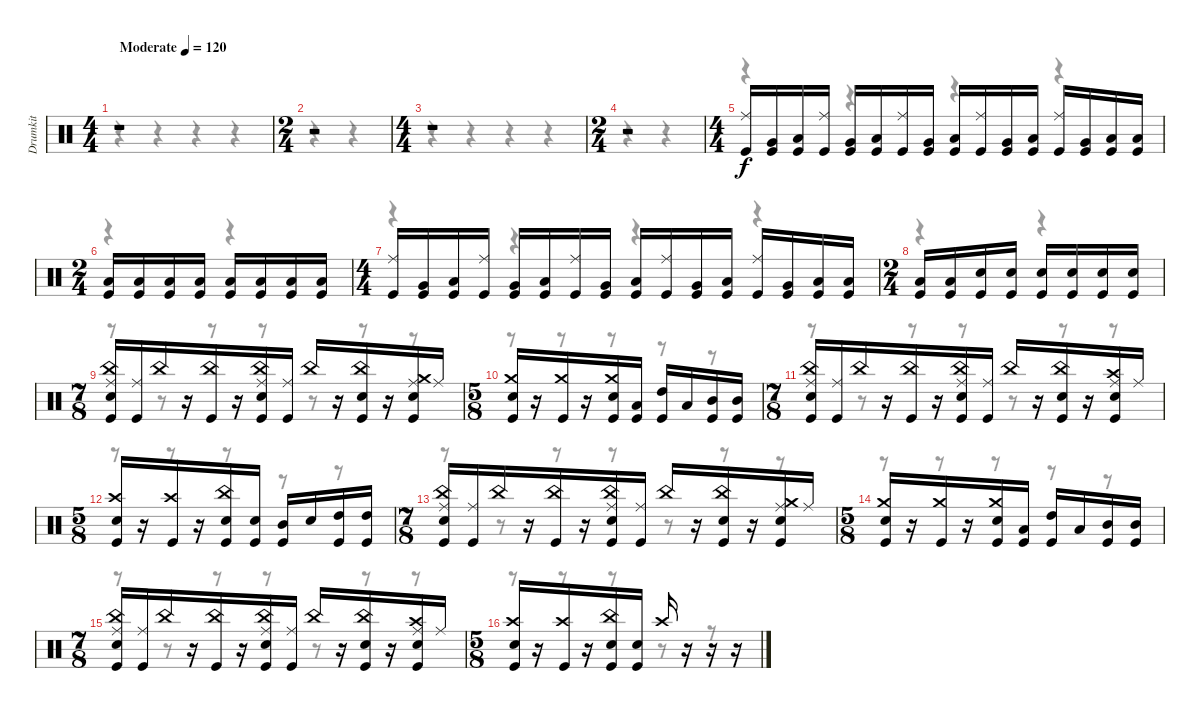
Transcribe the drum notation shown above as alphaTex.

\track ("Drumkit" "Drumkit") {instrument percussion}
\staff {score}
\articulation defaults
\voice
\ts (4 4)
\tempo (120 "Moderate")
\clef neutral
\ks c
r.1{dy f} |
\ts (2 4)
r.2 |
\ts (4 4)
r.1 |
\ts (2 4)
r.2 |
\ts (4 4)
("Ride (middle)" "Kick (hit)").16 ("Very Low Tom (hit)" "Kick (hit)").16 ("Low Floor Tom (hit)" "Kick (hit)").16 ("Ride (middle)" "Kick (hit)").16 ("Very Low Tom (hit)" "Kick (hit)").16 ("Low Floor Tom (hit)" "Kick (hit)").16 ("Ride (middle)" "Kick (hit)").16 ("Very Low Tom (hit)" "Kick (hit)").16 ("Low Floor Tom (hit)" "Kick (hit)").16 ("Ride (middle)" "Kick (hit)").16 ("Very Low Tom (hit)" "Kick (hit)").16 ("Low Floor Tom (hit)" "Kick (hit)").16 ("Ride (middle)" "Kick (hit)").16 ("Very Low Tom (hit)" "Kick (hit)").16 ("Low Floor Tom (hit)" "Kick (hit)").16 ("Low Floor Tom (hit)" "Kick (hit)").16 |
\ts (2 4)
("Low Floor Tom (hit)" "Kick (hit)").16 ("Low Floor Tom (hit)" "Kick (hit)").16 ("Low Floor Tom (hit)" "Kick (hit)").16 ("Low Floor Tom (hit)" "Kick (hit)").16 ("Low Floor Tom (hit)" "Kick (hit)").16 ("Low Floor Tom (hit)" "Kick (hit)").16 ("Low Floor Tom (hit)" "Kick (hit)").16 ("Low Floor Tom (hit)" "Kick (hit)").16 |
\ts (4 4)
("Ride (middle)" "Kick (hit)").16 ("Very Low Tom (hit)" "Kick (hit)").16 ("Low Floor Tom (hit)" "Kick (hit)").16 ("Ride (middle)" "Kick (hit)").16 ("Very Low Tom (hit)" "Kick (hit)").16 ("Low Floor Tom (hit)" "Kick (hit)").16 ("Ride (middle)" "Kick (hit)").16 ("Very Low Tom (hit)" "Kick (hit)").16 ("Low Floor Tom (hit)" "Kick (hit)").16 ("Ride (middle)" "Kick (hit)").16 ("Very Low Tom (hit)" "Kick (hit)").16 ("Low Floor Tom (hit)" "Kick (hit)").16 ("Ride (middle)" "Kick (hit)").16 ("Very Low Tom (hit)" "Kick (hit)").16 ("Low Floor Tom (hit)" "Kick (hit)").16 ("Low Floor Tom (hit)" "Kick (hit)").16 |
\ts (2 4)
("Low Floor Tom (hit)" "Kick (hit)").16 ("Low Floor Tom (hit)" "Kick (hit)").16 ("Snare (hit) 2" "Kick (hit)").16 ("Snare (hit) 2" "Kick (hit)").16 ("Snare (hit) 2" "Kick (hit)").16 ("Snare (hit) 2" "Kick (hit)").16 ("Snare (hit) 2" "Kick (hit)").16 ("Snare (hit) 2" "Kick (hit)").16 |
\ts (7 8)
("Ride (middle)" "China (hit)" "Snare (hit) 2" "Kick (hit)").16 ("Ride (middle)" "Kick (hit)").16 "China (hit)".16 r.16 ("China (hit)" "Kick (hit)").16 r.16 ("Ride (middle)" "China (hit)" "Snare (hit) 2" "Kick (hit)").16 ("Ride (middle)" "Kick (hit)").16 "China (hit)".16 r.16 ("China (hit)" "Snare (hit) 2" "Kick (hit)").16 r.16 ("Ride (middle)" "Crash medium (hit)" "Snare (hit) 2" "Kick (hit)").16 "Ride (middle)".16 |
\ts (5 8)
("Crash medium (hit)" "Snare (hit) 2" "Kick (hit)").16 r.16 ("Crash medium (hit)" "Kick (hit)").16 r.16 ("Crash medium (hit)" "Snare (hit) 2" "Kick (hit)").16 ("Low Floor Tom (hit)" "Kick (hit)").16 ("High Tom (hit)" "Kick (hit)").16 "Low Floor Tom (hit)".16 ("Mid Tom (hit)" "Kick (hit)").16 ("Mid Tom (hit)" "Kick (hit)").16 |
\ts (7 8)
("Ride (middle)" "China (hit)" "Snare (hit) 2" "Kick (hit)").16 ("Ride (middle)" "Kick (hit)").16 "China (hit)".16 r.16 ("China (hit)" "Kick (hit)").16 r.16 ("Ride (middle)" "China (hit)" "Snare (hit) 2" "Kick (hit)").16 ("Ride (middle)" "Kick (hit)").16 "China (hit)".16 r.16 ("China (hit)" "Snare (hit) 2" "Kick (hit)").16 r.16 ("Ride (middle)" "Crash high (hit)" "Snare (hit) 2" "Kick (hit)").16 "Ride (middle)".16 |
\ts (5 8)
("Crash high (hit)" "Snare (hit) 2" "Kick (hit)").16 r.16 ("Crash high (hit)" "Kick (hit)").16 r.16 ("China (hit)" "Snare (hit) 2" "Kick (hit)").16 ("Snare (hit) 2" "Kick (hit)").16 ("Mid Tom (hit)" "Kick (hit)").16 "Snare (hit) 2".16 ("High Tom (hit)" "Kick (hit)").16 ("High Tom (hit)" "Kick (hit)").16 |
\ts (7 8)
("Ride (middle)" "China (hit)" "Snare (hit) 2" "Kick (hit)").16 ("Ride (middle)" "Kick (hit)").16 "China (hit)".16 r.16 ("China (hit)" "Kick (hit)").16 r.16 ("Ride (middle)" "China (hit)" "Snare (hit) 2" "Kick (hit)").16 ("Ride (middle)" "Kick (hit)").16 "China (hit)".16 r.16 ("China (hit)" "Snare (hit) 2" "Kick (hit)").16 r.16 ("Ride (middle)" "Crash medium (hit)" "Snare (hit) 2" "Kick (hit)").16 "Ride (middle)".16 |
\ts (5 8)
("Crash medium (hit)" "Snare (hit) 2" "Kick (hit)").16 r.16 ("Crash medium (hit)" "Kick (hit)").16 r.16 ("Crash medium (hit)" "Snare (hit) 2" "Kick (hit)").16 ("Low Floor Tom (hit)" "Kick (hit)").16 ("High Tom (hit)" "Kick (hit)").16 "Low Floor Tom (hit)".16 ("Mid Tom (hit)" "Kick (hit)").16 ("Mid Tom (hit)" "Kick (hit)").16 |
\ts (7 8)
("Ride (middle)" "China (hit)" "Snare (hit) 2" "Kick (hit)").16 ("Ride (middle)" "Kick (hit)").16 "China (hit)".16 r.16 ("China (hit)" "Kick (hit)").16 r.16 ("Ride (middle)" "China (hit)" "Snare (hit) 2" "Kick (hit)").16 ("Ride (middle)" "Kick (hit)").16 "China (hit)".16 r.16 ("China (hit)" "Snare (hit) 2" "Kick (hit)").16 r.16 ("Ride (middle)" "Crash high (hit)" "Snare (hit) 2" "Kick (hit)").16 "Ride (middle)".16 |
\ts (5 8)
("Crash high (hit)" "Snare (hit) 2" "Kick (hit)").16 r.16 ("Crash high (hit)" "Kick (hit)").16 r.16 ("China (hit)" "Snare (hit) 2" "Kick (hit)").16 ("Snare (hit) 2" "Kick (hit)").16 "Crash high (hit)".16 r.16 r.16 r.16
\voice
\clef neutral
\ottava regular
\simile none
\ks c
r.4{dy f} r.4 r.4 r.4 |
r.4 r.4 |
r.4 r.4 r.4 r.4 |
r.4 r.4 |
r.4 r.4 r.4 r.4 |
r.4 r.4 |
r.4 r.4 r.4 r.4 |
r.4 r.4 |
r.8 r.8 r.8 r.8 r.8 r.8 r.8 |
r.8 r.8 r.8 r.8 r.8 |
r.8 r.8 r.8 r.8 r.8 r.8 r.8 |
r.8 r.8 r.8 r.8 r.8 |
r.8 r.8 r.8 r.8 r.8 r.8 r.8 |
r.8 r.8 r.8 r.8 r.8 |
r.8 r.8 r.8 r.8 r.8 r.8 r.8 |
r.8 r.8 r.8 r.8 r.8
